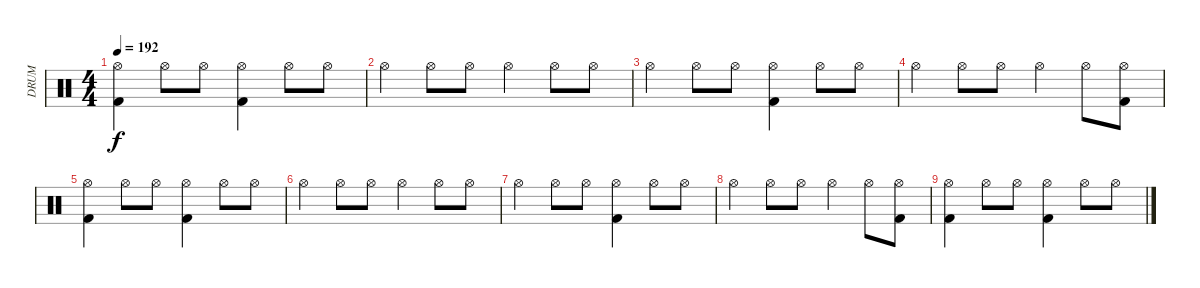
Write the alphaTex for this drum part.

\track ("     DRUM" "     DRUM") {instrument percussion}
\staff {score}
\articulation defaults
\ts (4 4)
\tempo 192
\clef neutral
\ks c
("Kick (hit) 2" "Hi-Hat (open)").4{dy f volume 9} "Hi-Hat (open)".8{volume 8} "Hi-Hat (open)".8{volume 8} ("Kick (hit) 2" "Hi-Hat (open)").4{volume 8} "Hi-Hat (open)".8{volume 8} "Hi-Hat (open)".8{volume 8} |
"Hi-Hat (open)".4{volume 8} "Hi-Hat (open)".8{volume 8} "Hi-Hat (open)".8{volume 7} "Hi-Hat (open)".4{volume 7} "Hi-Hat (open)".8{volume 7} "Hi-Hat (open)".8{volume 7} |
"Hi-Hat (open)".4{volume 7} "Hi-Hat (open)".8{volume 7} "Hi-Hat (open)".8{volume 6} ("Kick (hit) 2" "Hi-Hat (open)").4{volume 6} "Hi-Hat (open)".8{volume 6} "Hi-Hat (open)".8{volume 6} |
"Hi-Hat (open)".4{volume 6} "Hi-Hat (open)".8{volume 6} "Hi-Hat (open)".8{volume 6} "Hi-Hat (open)".4{volume 5} "Hi-Hat (open)".8{volume 5} ("Kick (hit) 2" "Hi-Hat (open)").8{volume 5} |
("Kick (hit) 2" "Hi-Hat (open)").4{volume 5} "Hi-Hat (open)".8{volume 5} "Hi-Hat (open)".8{volume 4} ("Kick (hit) 2" "Hi-Hat (open)").4{volume 4} "Hi-Hat (open)".8{volume 4} "Hi-Hat (open)".8{volume 4} |
"Hi-Hat (open)".4{volume 4} "Hi-Hat (open)".8{volume 4} "Hi-Hat (open)".8{volume 4} "Hi-Hat (open)".4 "Hi-Hat (open)".8{volume 3} "Hi-Hat (open)".8{volume 3} |
"Hi-Hat (open)".4{volume 3} "Hi-Hat (open)".8{volume 3} "Hi-Hat (open)".8{volume 3} ("Kick (hit) 2" "Hi-Hat (open)").4{volume 2} "Hi-Hat (open)".8{volume 2} "Hi-Hat (open)".8{volume 2} |
"Hi-Hat (open)".4{volume 2} "Hi-Hat (open)".8{volume 2} "Hi-Hat (open)".8{volume 2} "Hi-Hat (open)".4{volume 2} "Hi-Hat (open)".8{volume 1} ("Kick (hit) 2" "Hi-Hat (open)").8{volume 1} |
("Kick (hit) 2" "Hi-Hat (open)").4{volume 1} "Hi-Hat (open)".8{volume 1} "Hi-Hat (open)".8{volume 1} ("Kick (hit) 2" "Hi-Hat (open)").4{volume 0} "Hi-Hat (open)".8{volume 0} "Hi-Hat (open)".8{volume 0}
